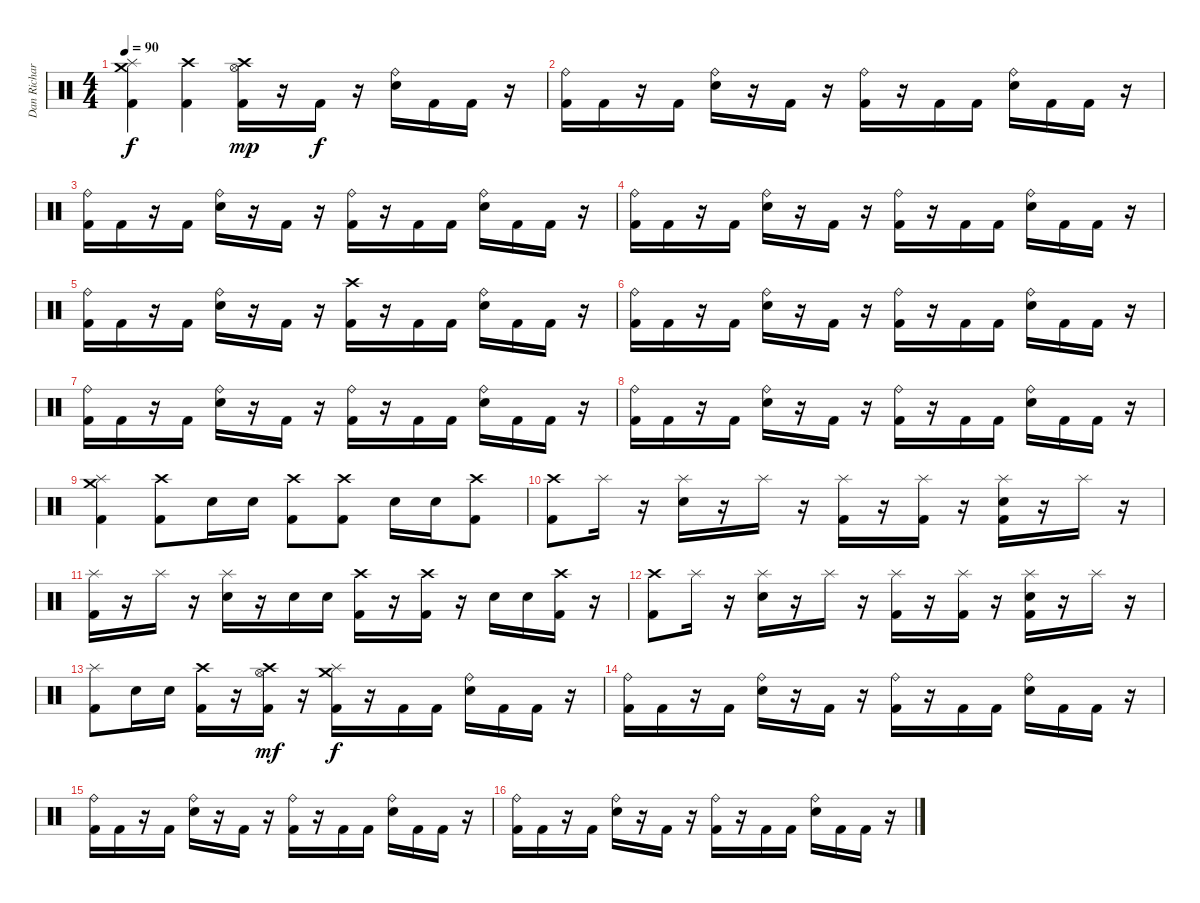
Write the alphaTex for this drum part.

\track ("Dan Richardson" "Dan Richar") {instrument percussion}
\staff {score}
\articulation defaults
\ts (4 4)
\tempo 90
\clef neutral
\ks c
("Crash medium (hit)" "Splash (hit)" "Kick (hit) 2").4{dy f} ("Crash high (hit)" "Kick (hit) 2").4 ("Crash high (hit)" "Hi-Hat (open)" "Kick (hit) 2").16{dy mp} r.16 "Kick (hit) 2".16{dy f} r.16 ("Ride (bell)" "Snare (hit) 2").16 "Kick (hit) 2".16 "Kick (hit) 2".16 r.16 |
("Ride (bell)" "Kick (hit) 2").16 "Kick (hit) 2".16 r.16 "Kick (hit) 2".16 ("Ride (bell)" "Snare (hit) 2").16 r.16 "Kick (hit) 2".16 r.16 ("Ride (bell)" "Kick (hit) 2").16 r.16 "Kick (hit) 2".16 "Kick (hit) 2".16 ("Ride (bell)" "Snare (hit) 2").16 "Kick (hit) 2".16 "Kick (hit) 2".16 r.16 |
("Ride (bell)" "Kick (hit) 2").16 "Kick (hit) 2".16 r.16 "Kick (hit) 2".16 ("Ride (bell)" "Snare (hit) 2").16 r.16 "Kick (hit) 2".16 r.16 ("Ride (bell)" "Kick (hit) 2").16 r.16 "Kick (hit) 2".16 "Kick (hit) 2".16 ("Ride (bell)" "Snare (hit) 2").16 "Kick (hit) 2".16 "Kick (hit) 2".16 r.16 |
("Ride (bell)" "Kick (hit) 2").16 "Kick (hit) 2".16 r.16 "Kick (hit) 2".16 ("Ride (bell)" "Snare (hit) 2").16 r.16 "Kick (hit) 2".16 r.16 ("Ride (bell)" "Kick (hit) 2").16 r.16 "Kick (hit) 2".16 "Kick (hit) 2".16 ("Ride (bell)" "Snare (hit) 2").16 "Kick (hit) 2".16 "Kick (hit) 2".16 r.16 |
("Ride (bell)" "Kick (hit) 2").16 "Kick (hit) 2".16 r.16 "Kick (hit) 2".16 ("Ride (bell)" "Snare (hit) 2").16 r.16 "Kick (hit) 2".16 r.16 ("Crash high (hit)" "Kick (hit) 2").16 r.16 "Kick (hit) 2".16 "Kick (hit) 2".16 ("Ride (bell)" "Snare (hit) 2").16 "Kick (hit) 2".16 "Kick (hit) 2".16 r.16 |
("Ride (bell)" "Kick (hit) 2").16 "Kick (hit) 2".16 r.16 "Kick (hit) 2".16 ("Ride (bell)" "Snare (hit) 2").16 r.16 "Kick (hit) 2".16 r.16 ("Ride (bell)" "Kick (hit) 2").16 r.16 "Kick (hit) 2".16 "Kick (hit) 2".16 ("Ride (bell)" "Snare (hit) 2").16 "Kick (hit) 2".16 "Kick (hit) 2".16 r.16 |
("Ride (bell)" "Kick (hit) 2").16 "Kick (hit) 2".16 r.16 "Kick (hit) 2".16 ("Ride (bell)" "Snare (hit) 2").16 r.16 "Kick (hit) 2".16 r.16 ("Ride (bell)" "Kick (hit) 2").16 r.16 "Kick (hit) 2".16 "Kick (hit) 2".16 ("Ride (bell)" "Snare (hit) 2").16 "Kick (hit) 2".16 "Kick (hit) 2".16 r.16 |
("Ride (bell)" "Kick (hit) 2").16 "Kick (hit) 2".16 r.16 "Kick (hit) 2".16 ("Ride (bell)" "Snare (hit) 2").16 r.16 "Kick (hit) 2".16 r.16 ("Ride (bell)" "Kick (hit) 2").16 r.16 "Kick (hit) 2".16 "Kick (hit) 2".16 ("Ride (bell)" "Snare (hit) 2").16 "Kick (hit) 2".16 "Kick (hit) 2".16 r.16 |
("Crash medium (hit)" "Splash (hit)" "Kick (hit) 2").4 ("Crash high (hit)" "Kick (hit) 2").8 "Snare (hit) 2".16 "Snare (hit) 2".16 ("Crash high (hit)" "Kick (hit) 2").8 ("Crash high (hit)" "Kick (hit) 2").8 "Snare (hit) 2".16 "Snare (hit) 2".16 ("Crash high (hit)" "Kick (hit) 2").8 |
("Crash high (hit)" "Kick (hit) 2").8 "Splash (hit)".16 r.16 ("Splash (hit)" "Snare (hit) 2").16 r.16 "Splash (hit)".16 r.16 ("Splash (hit)" "Kick (hit) 2").16 r.16 ("Splash (hit)" "Kick (hit) 2").16 r.16 ("Splash (hit)" "Snare (hit) 2" "Kick (hit) 2").16 r.16 "Splash (hit)".16 r.16 |
("Splash (hit)" "Kick (hit) 2").16 r.16 "Splash (hit)".16 r.16 ("Splash (hit)" "Snare (hit) 2").16 r.16 "Snare (hit) 2".16 "Snare (hit) 2".16 ("Crash high (hit)" "Kick (hit) 2").16 r.16 ("Crash high (hit)" "Kick (hit) 2").16 r.16 "Snare (hit) 2".16 "Snare (hit) 2".16 ("Crash high (hit)" "Kick (hit) 2").16 r.16 |
("Crash high (hit)" "Kick (hit) 2").8 "Splash (hit)".16 r.16 ("Splash (hit)" "Snare (hit) 2").16 r.16 "Splash (hit)".16 r.16 ("Splash (hit)" "Kick (hit) 2").16 r.16 ("Splash (hit)" "Kick (hit) 2").16 r.16 ("Splash (hit)" "Snare (hit) 2" "Kick (hit) 2").16 r.16 "Splash (hit)".16 r.16 |
("Splash (hit)" "Kick (hit) 2").8 "Snare (hit) 2".16 "Snare (hit) 2".16 ("Crash high (hit)" "Kick (hit) 2").16 r.16 ("Crash high (hit)" "Hi-Hat (open)" "Kick (hit) 2").16{dy mf} r.16 ("Crash medium (hit)" "Splash (hit)" "Kick (hit) 2").16{dy f} r.16 "Kick (hit) 2".16 "Kick (hit) 2".16 ("Ride (bell)" "Snare (hit) 2").16 "Kick (hit) 2".16 "Kick (hit) 2".16 r.16 |
("Ride (bell)" "Kick (hit) 2").16 "Kick (hit) 2".16 r.16 "Kick (hit) 2".16 ("Ride (bell)" "Snare (hit) 2").16 r.16 "Kick (hit) 2".16 r.16 ("Ride (bell)" "Kick (hit) 2").16 r.16 "Kick (hit) 2".16 "Kick (hit) 2".16 ("Ride (bell)" "Snare (hit) 2").16 "Kick (hit) 2".16 "Kick (hit) 2".16 r.16 |
("Ride (bell)" "Kick (hit) 2").16 "Kick (hit) 2".16 r.16 "Kick (hit) 2".16 ("Ride (bell)" "Snare (hit) 2").16 r.16 "Kick (hit) 2".16 r.16 ("Ride (bell)" "Kick (hit) 2").16 r.16 "Kick (hit) 2".16 "Kick (hit) 2".16 ("Ride (bell)" "Snare (hit) 2").16 "Kick (hit) 2".16 "Kick (hit) 2".16 r.16 |
("Ride (bell)" "Kick (hit) 2").16 "Kick (hit) 2".16 r.16 "Kick (hit) 2".16 ("Ride (bell)" "Snare (hit) 2").16 r.16 "Kick (hit) 2".16 r.16 ("Ride (bell)" "Kick (hit) 2").16 r.16 "Kick (hit) 2".16 "Kick (hit) 2".16 ("Ride (bell)" "Snare (hit) 2").16 "Kick (hit) 2".16 "Kick (hit) 2".16 r.16
